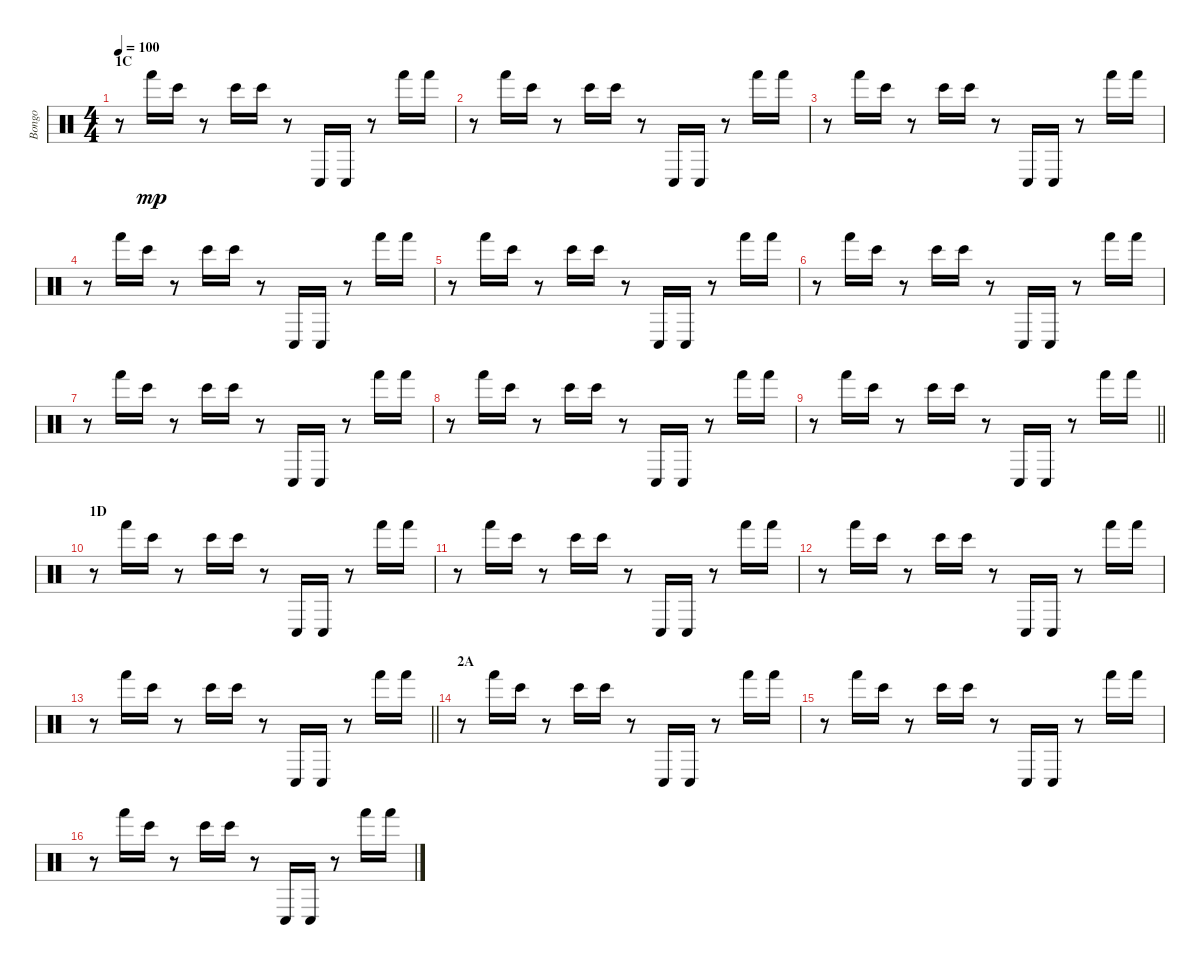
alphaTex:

\track ("Bongo" "Bongo") {instrument percussion}
\staff {score}
\articulation defaults
\ts (4 4)
\section ("" "1C")
\tempo 100
\clef neutral
\ks c
r.8{dy mp} "Hand (hit)".16 "Bongo High (hit)".16 r.8 "Bongo High (hit)".16 "Bongo High (hit)".16 r.8 "Conga low (hit)".16 "Conga low (hit)".16 r.8 "Hand (hit)".16 "Hand (hit)".16 |
r.8 "Hand (hit)".16 "Bongo High (hit)".16 r.8 "Bongo High (hit)".16 "Bongo High (hit)".16 r.8 "Conga low (hit)".16 "Conga low (hit)".16 r.8 "Hand (hit)".16 "Hand (hit)".16 |
r.8 "Hand (hit)".16 "Bongo High (hit)".16 r.8 "Bongo High (hit)".16 "Bongo High (hit)".16 r.8 "Conga low (hit)".16 "Conga low (hit)".16 r.8 "Hand (hit)".16 "Hand (hit)".16 |
r.8 "Hand (hit)".16 "Bongo High (hit)".16 r.8 "Bongo High (hit)".16 "Bongo High (hit)".16 r.8 "Conga low (hit)".16 "Conga low (hit)".16 r.8 "Hand (hit)".16 "Hand (hit)".16 |
r.8 "Hand (hit)".16 "Bongo High (hit)".16 r.8 "Bongo High (hit)".16 "Bongo High (hit)".16 r.8 "Conga low (hit)".16 "Conga low (hit)".16 r.8 "Hand (hit)".16 "Hand (hit)".16 |
r.8 "Hand (hit)".16 "Bongo High (hit)".16 r.8 "Bongo High (hit)".16 "Bongo High (hit)".16 r.8 "Conga low (hit)".16 "Conga low (hit)".16 r.8 "Hand (hit)".16 "Hand (hit)".16 |
r.8 "Hand (hit)".16 "Bongo High (hit)".16 r.8 "Bongo High (hit)".16 "Bongo High (hit)".16 r.8 "Conga low (hit)".16 "Conga low (hit)".16 r.8 "Hand (hit)".16 "Hand (hit)".16 |
r.8 "Hand (hit)".16 "Bongo High (hit)".16 r.8 "Bongo High (hit)".16 "Bongo High (hit)".16 r.8 "Conga low (hit)".16 "Conga low (hit)".16 r.8 "Hand (hit)".16 "Hand (hit)".16 |
\barLineRight lightlight
r.8 "Hand (hit)".16 "Bongo High (hit)".16 r.8 "Bongo High (hit)".16 "Bongo High (hit)".16 r.8 "Conga low (hit)".16 "Conga low (hit)".16 r.8 "Hand (hit)".16 "Hand (hit)".16 |
\section ("" "1D")
r.8 "Hand (hit)".16 "Bongo High (hit)".16 r.8 "Bongo High (hit)".16 "Bongo High (hit)".16 r.8 "Conga low (hit)".16 "Conga low (hit)".16 r.8 "Hand (hit)".16 "Hand (hit)".16 |
r.8 "Hand (hit)".16 "Bongo High (hit)".16 r.8 "Bongo High (hit)".16 "Bongo High (hit)".16 r.8 "Conga low (hit)".16 "Conga low (hit)".16 r.8 "Hand (hit)".16 "Hand (hit)".16 |
r.8 "Hand (hit)".16 "Bongo High (hit)".16 r.8 "Bongo High (hit)".16 "Bongo High (hit)".16 r.8 "Conga low (hit)".16 "Conga low (hit)".16 r.8 "Hand (hit)".16 "Hand (hit)".16 |
\barLineRight lightlight
r.8 "Hand (hit)".16 "Bongo High (hit)".16 r.8 "Bongo High (hit)".16 "Bongo High (hit)".16 r.8 "Conga low (hit)".16 "Conga low (hit)".16 r.8 "Hand (hit)".16 "Hand (hit)".16 |
\section ("" "2A")
r.8 "Hand (hit)".16 "Bongo High (hit)".16 r.8 "Bongo High (hit)".16 "Bongo High (hit)".16 r.8 "Conga low (hit)".16 "Conga low (hit)".16 r.8 "Hand (hit)".16 "Hand (hit)".16 |
r.8 "Hand (hit)".16 "Bongo High (hit)".16 r.8 "Bongo High (hit)".16 "Bongo High (hit)".16 r.8 "Conga low (hit)".16 "Conga low (hit)".16 r.8 "Hand (hit)".16 "Hand (hit)".16 |
r.8 "Hand (hit)".16 "Bongo High (hit)".16 r.8 "Bongo High (hit)".16 "Bongo High (hit)".16 r.8 "Conga low (hit)".16 "Conga low (hit)".16 r.8 "Hand (hit)".16 "Hand (hit)".16
